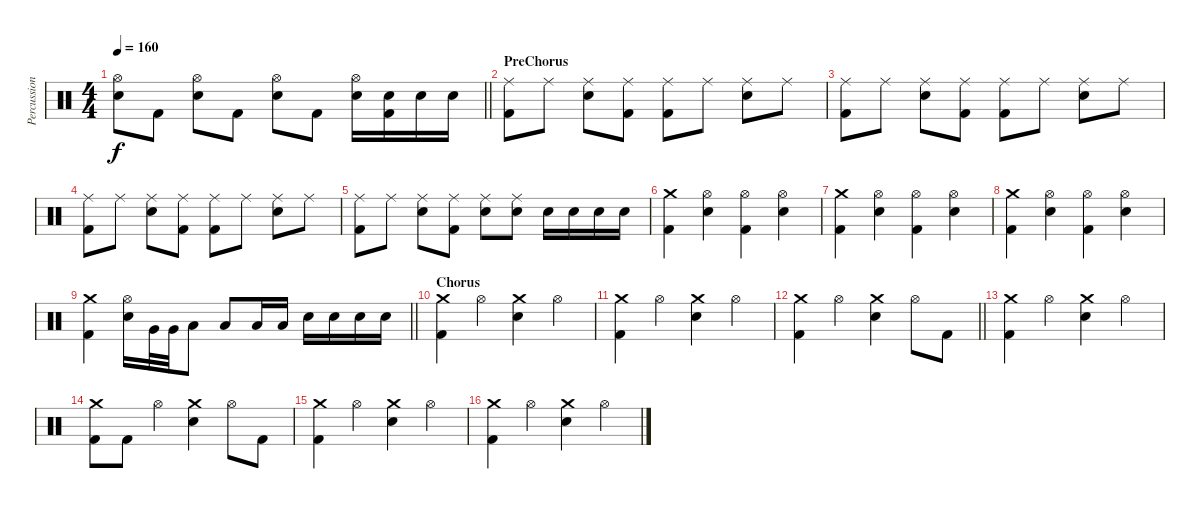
\track ("Percussioni" "Percussion") {instrument percussion}
\staff {score}
\articulation defaults
\ts (4 4)
\tempo 160
\clef neutral
\barLineRight lightlight
\ks c
("Hi-Hat (open)" "Electric Snare (hit)").8{dy f} "Kick (hit) 2".8 ("Hi-Hat (open)" "Electric Snare (hit)").8 "Kick (hit) 2".8 ("Hi-Hat (open)" "Electric Snare (hit)").8 "Kick (hit) 2".8 ("Hi-Hat (open)" "Electric Snare (hit)").16 ("Electric Snare (hit)" "Kick (hit) 2").16 "Electric Snare (hit)".16 "Electric Snare (hit)".16 |
\section ("" "PreChorus")
("Ride (middle)" "Kick (hit) 2").8 "Ride (middle)".8 ("Ride (middle)" "Electric Snare (hit)").8 ("Ride (middle)" "Kick (hit) 2").8 ("Ride (middle)" "Kick (hit) 2").8 "Ride (middle)".8 ("Ride (middle)" "Electric Snare (hit)").8 "Ride (middle)".8 |
("Ride (middle)" "Kick (hit) 2").8 "Ride (middle)".8 ("Ride (middle)" "Electric Snare (hit)").8 ("Ride (middle)" "Kick (hit) 2").8 ("Ride (middle)" "Kick (hit) 2").8 "Ride (middle)".8 ("Ride (middle)" "Electric Snare (hit)").8 "Ride (middle)".8 |
("Ride (middle)" "Kick (hit) 2").8 "Ride (middle)".8 ("Ride (middle)" "Electric Snare (hit)").8 ("Ride (middle)" "Kick (hit) 2").8 ("Ride (middle)" "Kick (hit) 2").8 "Ride (middle)".8 ("Ride (middle)" "Electric Snare (hit)").8 "Ride (middle)".8 |
("Ride (middle)" "Kick (hit) 2").8 "Ride (middle)".8 ("Ride (middle)" "Electric Snare (hit)").8 ("Ride (middle)" "Kick (hit) 2").8 ("Ride (middle)" "Electric Snare (hit)").8 ("Ride (middle)" "Electric Snare (hit)").8 "Electric Snare (hit)".16 "Electric Snare (hit)".16 "Electric Snare (hit)".16 "Electric Snare (hit)".16 |
("Crash medium (hit)" "Kick (hit) 2").4 ("Hi-Hat (open)" "Electric Snare (hit)").4 ("Hi-Hat (open)" "Kick (hit) 2").4 ("Hi-Hat (open)" "Electric Snare (hit)").4 |
("Crash medium (hit)" "Kick (hit) 2").4 ("Hi-Hat (open)" "Electric Snare (hit)").4 ("Hi-Hat (open)" "Kick (hit) 2").4 ("Hi-Hat (open)" "Electric Snare (hit)").4 |
("Crash medium (hit)" "Kick (hit) 2").4 ("Hi-Hat (open)" "Electric Snare (hit)").4 ("Hi-Hat (open)" "Kick (hit) 2").4 ("Hi-Hat (open)" "Electric Snare (hit)").4 |
\barLineRight lightlight
("Crash medium (hit)" "Kick (hit) 2").4 ("Hi-Hat (open)" "Electric Snare (hit)").16 "Very Low Tom (hit)".32 "Very Low Tom (hit)".32 "Low Floor Tom (hit)".8 "Low Floor Tom (hit)".8 "Low Floor Tom (hit)".16 "Low Floor Tom (hit)".16 "Electric Snare (hit)".16 "Electric Snare (hit)".16 "Electric Snare (hit)".16 "Electric Snare (hit)".16 |
\section ("" "Chorus")
("Crash medium (hit)" "Kick (hit) 2").4 "Hi-Hat (open)".4 ("Crash medium (hit)" "Electric Snare (hit)").4 "Hi-Hat (open)".4 |
("Crash medium (hit)" "Kick (hit) 2").4 "Hi-Hat (open)".4 ("Crash medium (hit)" "Electric Snare (hit)").4 "Hi-Hat (open)".4 |
\barLineRight lightlight
("Crash medium (hit)" "Kick (hit) 2").4 "Hi-Hat (open)".4 ("Crash medium (hit)" "Electric Snare (hit)").4 "Hi-Hat (open)".8 "Kick (hit) 2".8 |
("Crash medium (hit)" "Kick (hit) 2").4 "Hi-Hat (open)".4 ("Crash medium (hit)" "Electric Snare (hit)").4 "Hi-Hat (open)".4 |
("Crash medium (hit)" "Kick (hit) 2").8 "Kick (hit) 2".8 "Hi-Hat (open)".4 ("Crash medium (hit)" "Electric Snare (hit)").4 "Hi-Hat (open)".8 "Kick (hit) 2".8 |
("Crash medium (hit)" "Kick (hit) 2").4 "Hi-Hat (open)".4 ("Crash medium (hit)" "Electric Snare (hit)").4 "Hi-Hat (open)".4 |
("Crash medium (hit)" "Kick (hit) 2").4 "Hi-Hat (open)".4 ("Crash medium (hit)" "Electric Snare (hit)").4 "Hi-Hat (open)".4
